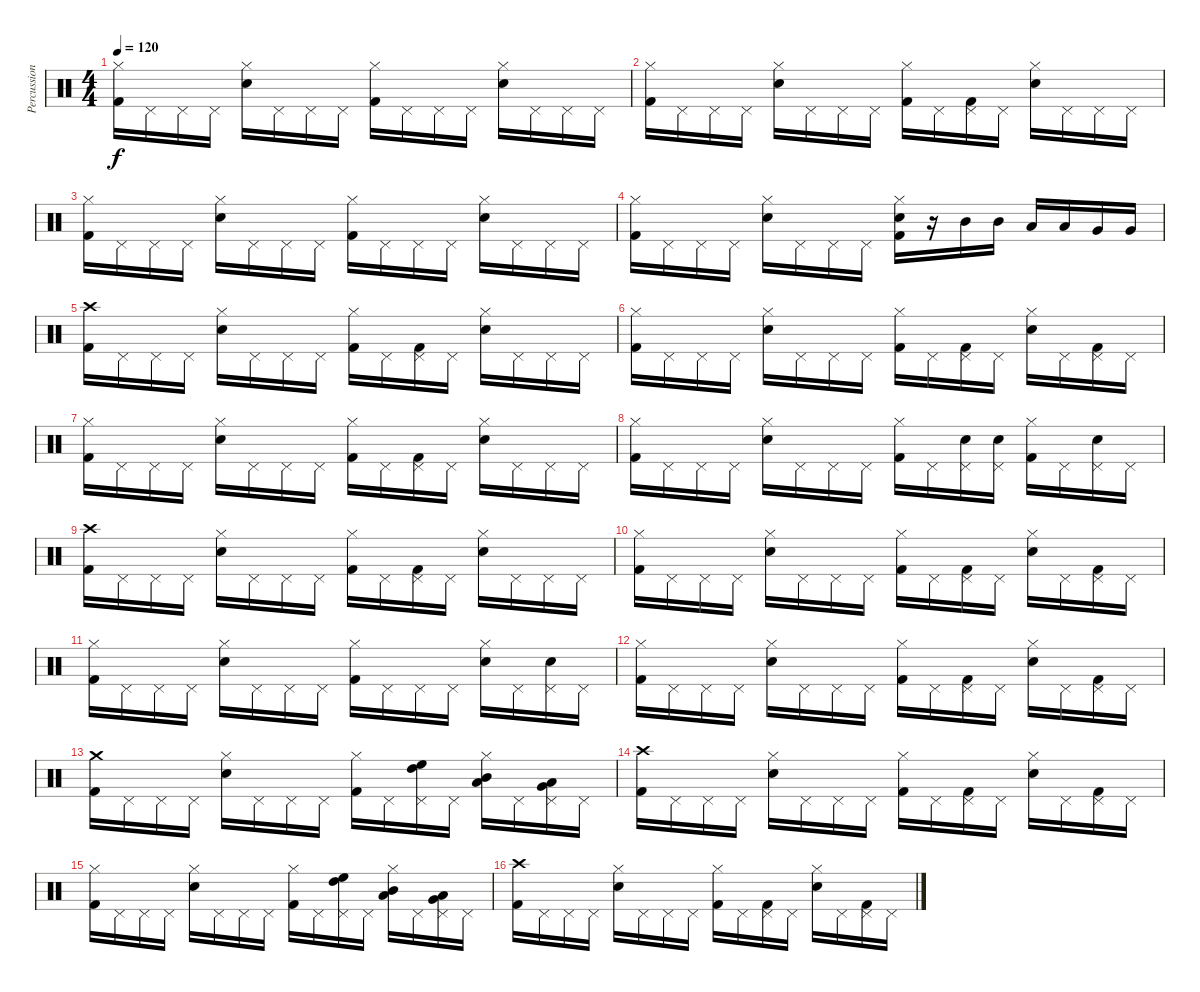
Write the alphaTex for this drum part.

\track ("Percussion" "Percussion") {instrument percussion}
\staff {score}
\articulation defaults
\ts (4 4)
\tempo 120
\clef neutral
\ks c
("Hi-Hat (closed)" "Kick (hit) 2").16{dy f} "Pedal Hi-Hat (hit)".16 "Pedal Hi-Hat (hit)".16 "Pedal Hi-Hat (hit)".16 ("Hi-Hat (closed)" "Electric Snare (hit)").16 "Pedal Hi-Hat (hit)".16 "Pedal Hi-Hat (hit)".16 "Pedal Hi-Hat (hit)".16 ("Hi-Hat (closed)" "Kick (hit) 2").16 "Pedal Hi-Hat (hit)".16 "Pedal Hi-Hat (hit)".16 "Pedal Hi-Hat (hit)".16 ("Hi-Hat (closed)" "Electric Snare (hit)").16 "Pedal Hi-Hat (hit)".16 "Pedal Hi-Hat (hit)".16 "Pedal Hi-Hat (hit)".16 |
("Hi-Hat (closed)" "Kick (hit) 2").16 "Pedal Hi-Hat (hit)".16 "Pedal Hi-Hat (hit)".16 "Pedal Hi-Hat (hit)".16 ("Hi-Hat (closed)" "Electric Snare (hit)").16 "Pedal Hi-Hat (hit)".16 "Pedal Hi-Hat (hit)".16 "Pedal Hi-Hat (hit)".16 ("Hi-Hat (closed)" "Kick (hit) 2").16 "Pedal Hi-Hat (hit)".16 ("Pedal Hi-Hat (hit)" "Kick (hit) 2").16 "Pedal Hi-Hat (hit)".16 ("Hi-Hat (closed)" "Electric Snare (hit)").16 "Pedal Hi-Hat (hit)".16 "Pedal Hi-Hat (hit)".16 "Pedal Hi-Hat (hit)".16 |
("Hi-Hat (closed)" "Kick (hit) 2").16 "Pedal Hi-Hat (hit)".16 "Pedal Hi-Hat (hit)".16 "Pedal Hi-Hat (hit)".16 ("Hi-Hat (closed)" "Electric Snare (hit)").16 "Pedal Hi-Hat (hit)".16 "Pedal Hi-Hat (hit)".16 "Pedal Hi-Hat (hit)".16 ("Hi-Hat (closed)" "Kick (hit) 2").16 "Pedal Hi-Hat (hit)".16 "Pedal Hi-Hat (hit)".16 "Pedal Hi-Hat (hit)".16 ("Hi-Hat (closed)" "Electric Snare (hit)").16 "Pedal Hi-Hat (hit)".16 "Pedal Hi-Hat (hit)".16 "Pedal Hi-Hat (hit)".16 |
("Hi-Hat (closed)" "Kick (hit) 2").16 "Pedal Hi-Hat (hit)".16 "Pedal Hi-Hat (hit)".16 "Pedal Hi-Hat (hit)".16 ("Hi-Hat (closed)" "Electric Snare (hit)").16 "Pedal Hi-Hat (hit)".16 "Pedal Hi-Hat (hit)".16 "Pedal Hi-Hat (hit)".16 ("Hi-Hat (closed)" "Electric Snare (hit)" "Kick (hit) 2").16 r.16 "Mid Tom (hit)".16 "Mid Tom (hit)".16 "Low Tom (hit)".16 "Low Tom (hit)".16 "Very Low Tom (hit)".16 "Very Low Tom (hit)".16 |
("Crash high (hit)" "Kick (hit) 2").16 "Pedal Hi-Hat (hit)".16 "Pedal Hi-Hat (hit)".16 "Pedal Hi-Hat (hit)".16 ("Hi-Hat (closed)" "Electric Snare (hit)").16 "Pedal Hi-Hat (hit)".16 "Pedal Hi-Hat (hit)".16 "Pedal Hi-Hat (hit)".16 ("Hi-Hat (closed)" "Kick (hit) 2").16 "Pedal Hi-Hat (hit)".16 ("Pedal Hi-Hat (hit)" "Kick (hit) 2").16 "Pedal Hi-Hat (hit)".16 ("Hi-Hat (closed)" "Electric Snare (hit)").16 "Pedal Hi-Hat (hit)".16 "Pedal Hi-Hat (hit)".16 "Pedal Hi-Hat (hit)".16 |
("Hi-Hat (closed)" "Kick (hit) 2").16 "Pedal Hi-Hat (hit)".16 "Pedal Hi-Hat (hit)".16 "Pedal Hi-Hat (hit)".16 ("Hi-Hat (closed)" "Electric Snare (hit)").16 "Pedal Hi-Hat (hit)".16 "Pedal Hi-Hat (hit)".16 "Pedal Hi-Hat (hit)".16 ("Hi-Hat (closed)" "Kick (hit) 2").16 "Pedal Hi-Hat (hit)".16 ("Pedal Hi-Hat (hit)" "Kick (hit) 2").16 "Pedal Hi-Hat (hit)".16 ("Hi-Hat (closed)" "Electric Snare (hit)").16 "Pedal Hi-Hat (hit)".16 ("Pedal Hi-Hat (hit)" "Kick (hit) 2").16 "Pedal Hi-Hat (hit)".16 |
("Hi-Hat (closed)" "Kick (hit) 2").16 "Pedal Hi-Hat (hit)".16 "Pedal Hi-Hat (hit)".16 "Pedal Hi-Hat (hit)".16 ("Hi-Hat (closed)" "Electric Snare (hit)").16 "Pedal Hi-Hat (hit)".16 "Pedal Hi-Hat (hit)".16 "Pedal Hi-Hat (hit)".16 ("Hi-Hat (closed)" "Kick (hit) 2").16 "Pedal Hi-Hat (hit)".16 ("Pedal Hi-Hat (hit)" "Kick (hit) 2").16 "Pedal Hi-Hat (hit)".16 ("Hi-Hat (closed)" "Electric Snare (hit)").16 "Pedal Hi-Hat (hit)".16 "Pedal Hi-Hat (hit)".16 "Pedal Hi-Hat (hit)".16 |
("Hi-Hat (closed)" "Kick (hit) 2").16 "Pedal Hi-Hat (hit)".16 "Pedal Hi-Hat (hit)".16 "Pedal Hi-Hat (hit)".16 ("Hi-Hat (closed)" "Electric Snare (hit)").16 "Pedal Hi-Hat (hit)".16 "Pedal Hi-Hat (hit)".16 "Pedal Hi-Hat (hit)".16 ("Hi-Hat (closed)" "Kick (hit) 2").16 "Pedal Hi-Hat (hit)".16 ("Pedal Hi-Hat (hit)" "Electric Snare (hit)").16 ("Pedal Hi-Hat (hit)" "Electric Snare (hit)").16 ("Hi-Hat (closed)" "Kick (hit) 2").16 "Pedal Hi-Hat (hit)".16 ("Pedal Hi-Hat (hit)" "Electric Snare (hit)").16 "Pedal Hi-Hat (hit)".16 |
("Crash high (hit)" "Kick (hit) 2").16 "Pedal Hi-Hat (hit)".16 "Pedal Hi-Hat (hit)".16 "Pedal Hi-Hat (hit)".16 ("Hi-Hat (closed)" "Electric Snare (hit)").16 "Pedal Hi-Hat (hit)".16 "Pedal Hi-Hat (hit)".16 "Pedal Hi-Hat (hit)".16 ("Hi-Hat (closed)" "Kick (hit) 2").16 "Pedal Hi-Hat (hit)".16 ("Pedal Hi-Hat (hit)" "Kick (hit) 2").16 "Pedal Hi-Hat (hit)".16 ("Hi-Hat (closed)" "Electric Snare (hit)").16 "Pedal Hi-Hat (hit)".16 "Pedal Hi-Hat (hit)".16 "Pedal Hi-Hat (hit)".16 |
("Hi-Hat (closed)" "Kick (hit) 2").16 "Pedal Hi-Hat (hit)".16 "Pedal Hi-Hat (hit)".16 "Pedal Hi-Hat (hit)".16 ("Hi-Hat (closed)" "Electric Snare (hit)").16 "Pedal Hi-Hat (hit)".16 "Pedal Hi-Hat (hit)".16 "Pedal Hi-Hat (hit)".16 ("Hi-Hat (closed)" "Kick (hit) 2").16 "Pedal Hi-Hat (hit)".16 ("Pedal Hi-Hat (hit)" "Kick (hit) 2").16 "Pedal Hi-Hat (hit)".16 ("Hi-Hat (closed)" "Electric Snare (hit)").16 "Pedal Hi-Hat (hit)".16 ("Pedal Hi-Hat (hit)" "Kick (hit) 2").16 "Pedal Hi-Hat (hit)".16 |
("Hi-Hat (closed)" "Kick (hit) 2").16 "Pedal Hi-Hat (hit)".16 "Pedal Hi-Hat (hit)".16 "Pedal Hi-Hat (hit)".16 ("Hi-Hat (closed)" "Electric Snare (hit)").16 "Pedal Hi-Hat (hit)".16 "Pedal Hi-Hat (hit)".16 "Pedal Hi-Hat (hit)".16 ("Hi-Hat (closed)" "Kick (hit) 2").16 "Pedal Hi-Hat (hit)".16 "Pedal Hi-Hat (hit)".16 "Pedal Hi-Hat (hit)".16 ("Hi-Hat (closed)" "Electric Snare (hit)").16 "Pedal Hi-Hat (hit)".16 ("Pedal Hi-Hat (hit)" "Electric Snare (hit)").16 "Pedal Hi-Hat (hit)".16 |
("Hi-Hat (closed)" "Kick (hit) 2").16 "Pedal Hi-Hat (hit)".16 "Pedal Hi-Hat (hit)".16 "Pedal Hi-Hat (hit)".16 ("Hi-Hat (closed)" "Electric Snare (hit)").16 "Pedal Hi-Hat (hit)".16 "Pedal Hi-Hat (hit)".16 "Pedal Hi-Hat (hit)".16 ("Hi-Hat (closed)" "Kick (hit) 2").16 "Pedal Hi-Hat (hit)".16 ("Pedal Hi-Hat (hit)" "Kick (hit) 2").16 "Pedal Hi-Hat (hit)".16 ("Hi-Hat (closed)" "Electric Snare (hit)").16 "Pedal Hi-Hat (hit)".16 ("Pedal Hi-Hat (hit)" "Kick (hit) 2").16 "Pedal Hi-Hat (hit)".16 |
("Crash medium (hit)" "Kick (hit) 2").16 "Pedal Hi-Hat (hit)".16 "Pedal Hi-Hat (hit)".16 "Pedal Hi-Hat (hit)".16 ("Hi-Hat (closed)" "Electric Snare (hit)").16 "Pedal Hi-Hat (hit)".16 "Pedal Hi-Hat (hit)".16 "Pedal Hi-Hat (hit)".16 ("Hi-Hat (closed)" "Kick (hit) 2").16 "Pedal Hi-Hat (hit)".16 ("Pedal Hi-Hat (hit)" "High Floor Tom (hit)" "High Tom (hit)").16 "Pedal Hi-Hat (hit)".16 ("Hi-Hat (closed)" "Mid Tom (hit)" "Low Tom (hit)").16 "Pedal Hi-Hat (hit)".16 ("Pedal Hi-Hat (hit)" "Very Low Tom (hit)" "Low Floor Tom (hit)").16 "Pedal Hi-Hat (hit)".16 |
("Crash high (hit)" "Kick (hit) 2").16 "Pedal Hi-Hat (hit)".16 "Pedal Hi-Hat (hit)".16 "Pedal Hi-Hat (hit)".16 ("Hi-Hat (closed)" "Electric Snare (hit)").16 "Pedal Hi-Hat (hit)".16 "Pedal Hi-Hat (hit)".16 "Pedal Hi-Hat (hit)".16 ("Hi-Hat (closed)" "Kick (hit) 2").16 "Pedal Hi-Hat (hit)".16 ("Pedal Hi-Hat (hit)" "Kick (hit) 2").16 "Pedal Hi-Hat (hit)".16 ("Hi-Hat (closed)" "Electric Snare (hit)").16 "Pedal Hi-Hat (hit)".16 ("Pedal Hi-Hat (hit)" "Kick (hit) 2").16 "Pedal Hi-Hat (hit)".16 |
("Hi-Hat (closed)" "Kick (hit) 2").16 "Pedal Hi-Hat (hit)".16 "Pedal Hi-Hat (hit)".16 "Pedal Hi-Hat (hit)".16 ("Hi-Hat (closed)" "Electric Snare (hit)").16 "Pedal Hi-Hat (hit)".16 "Pedal Hi-Hat (hit)".16 "Pedal Hi-Hat (hit)".16 ("Hi-Hat (closed)" "Kick (hit) 2").16 "Pedal Hi-Hat (hit)".16 ("Pedal Hi-Hat (hit)" "High Floor Tom (hit)" "High Tom (hit)").16 "Pedal Hi-Hat (hit)".16 ("Hi-Hat (closed)" "Mid Tom (hit)" "Low Tom (hit)").16 "Pedal Hi-Hat (hit)".16 ("Pedal Hi-Hat (hit)" "Very Low Tom (hit)" "Low Floor Tom (hit)").16 "Pedal Hi-Hat (hit)".16 |
("Crash high (hit)" "Kick (hit) 2").16 "Pedal Hi-Hat (hit)".16 "Pedal Hi-Hat (hit)".16 "Pedal Hi-Hat (hit)".16 ("Hi-Hat (closed)" "Electric Snare (hit)").16 "Pedal Hi-Hat (hit)".16 "Pedal Hi-Hat (hit)".16 "Pedal Hi-Hat (hit)".16 ("Hi-Hat (closed)" "Kick (hit) 2").16 "Pedal Hi-Hat (hit)".16 ("Pedal Hi-Hat (hit)" "Kick (hit) 2").16 "Pedal Hi-Hat (hit)".16 ("Hi-Hat (closed)" "Electric Snare (hit)").16 "Pedal Hi-Hat (hit)".16 ("Pedal Hi-Hat (hit)" "Kick (hit) 2").16 "Pedal Hi-Hat (hit)".16
